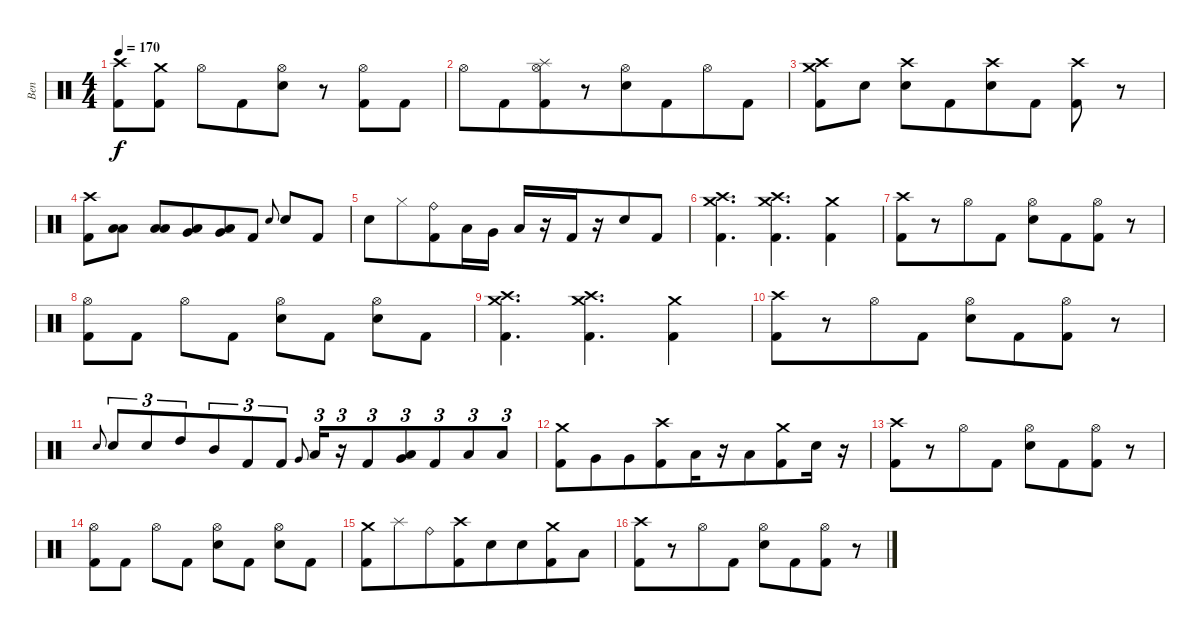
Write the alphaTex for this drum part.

\track ("Ben" "Ben") {instrument percussion}
\staff {score}
\articulation defaults
\ts (4 4)
\tempo 170
\clef neutral
\ks c
("Kick (hit) 2" "Crash high (hit)").8{dy f beam merge} ("Kick (hit) 2" "Crash medium (hit)").8 "Hi-Hat (open)".8 "Kick (hit) 2".8{beam merge} ("Electric Snare (hit)" "Hi-Hat (open)").8 r.8 ("Kick (hit) 2" "Hi-Hat (open)").8{beam merge} "Kick (hit) 2".8 |
"Hi-Hat (open)".8{beam merge} "Kick (hit) 2".8{beam merge} ("Kick (hit) 2" "Splash (hit)" "Hi-Hat (open)").8{beam merge} r.8{beam merge} ("Electric Snare (hit)" "Hi-Hat (open)").8{beam merge} "Kick (hit) 2".8{beam merge} "Hi-Hat (open)".8 "Kick (hit) 2".8 |
("Kick (hit) 2" "Crash high (hit)" "Crash medium (hit)").8{beam merge} "Electric Snare (hit)".8 ("Electric Snare (hit)" "Crash high (hit)").8 "Kick (hit) 2".8{beam merge} ("Electric Snare (hit)" "Crash high (hit)").8 "Kick (hit) 2".8 ("Kick (hit) 2" "Crash high (hit)").8{beam merge} r.8 |
("Kick (hit) 2" "Crash high (hit)").8{beam merge} ("Low Tom (hit)" "Low Floor Tom (hit)").8 ("Low Tom (hit)" "Low Floor Tom (hit)").8{beam merge} ("Very Low Tom (hit)" "Low Floor Tom (hit)").8{beam merge} ("Very Low Tom (hit)" "Low Floor Tom (hit)").8 "Kick (hit) 2".8 "Electric Snare (hit)".8{gr onbeat} "Electric Snare (hit)".8{beam merge} "Kick (hit) 2".8 |
"Electric Snare (hit)".8{beam merge} "Hi-Hat (closed)".8{beam merge} ("Ride (bell)" "Kick (hit) 2").8 "Low Tom (hit)".16 "Very Low Tom (hit)".16 "Low Floor Tom (hit)".16 r.16{beam merge} "Kick (hit) 2".16{beam merge} r.16{beam merge} "Electric Snare (hit)".8{beam merge} "Kick (hit) 2".8 |
("Crash high (hit)" "Crash medium (hit)" "Kick (hit) 2").4{d} ("Crash high (hit)" "Crash medium (hit)" "Kick (hit) 2").4{d beam merge} ("Crash medium (hit)" "Kick (hit) 2").4 |
("Crash high (hit)" "Kick (hit) 2").8{beam merge} r.8 "Hi-Hat (open)".8 "Kick (hit) 2".8 ("Hi-Hat (open)" "Electric Snare (hit)").8{beam merge} "Kick (hit) 2".8{beam merge} ("Hi-Hat (open)" "Kick (hit) 2").8{beam merge} r.8 |
("Hi-Hat (open)" "Kick (hit) 2").8 "Kick (hit) 2".8 "Hi-Hat (open)".8{beam merge} "Kick (hit) 2".8 ("Hi-Hat (open)" "Electric Snare (hit)").8 "Kick (hit) 2".8 ("Hi-Hat (open)" "Electric Snare (hit)").8 "Kick (hit) 2".8 |
("Crash high (hit)" "Crash medium (hit)" "Kick (hit) 2").4{d} ("Crash high (hit)" "Crash medium (hit)" "Kick (hit) 2").4{d beam merge} ("Crash medium (hit)" "Kick (hit) 2").4 |
("Crash high (hit)" "Kick (hit) 2").8{beam merge} r.8 "Hi-Hat (open)".8 "Kick (hit) 2".8 ("Hi-Hat (open)" "Electric Snare (hit)").8{beam merge} "Kick (hit) 2".8{beam merge} ("Hi-Hat (open)" "Kick (hit) 2").8{beam merge} r.8 |
"Electric Snare (hit)".8{gr onbeat beam merge} "Electric Snare (hit)".8{tu (3 2) beam merge} "Electric Snare (hit)".8{tu (3 2) beam merge} "High Tom (hit)".8{tu (3 2) beam merge} "Mid Tom (hit)".8{tu (3 2)} "Kick (hit) 2".8{tu (3 2)} "Kick (hit) 2".8{tu (3 2)} "Very Low Tom (hit)".8{gr onbeat beam merge} "Low Tom (hit)".16{tu (3 2)} r.16{tu (3 2) beam merge} "Kick (hit) 2".8{tu (3 2)} ("Low Floor Tom (hit)" "Very Low Tom (hit)").8{tu (3 2) beam merge} "Kick (hit) 2".8{tu (3 2) beam merge} "Low Floor Tom (hit)".8{tu (3 2) beam merge} "Low Floor Tom (hit)".8{tu (3 2)} |
("Crash medium (hit)" "Kick (hit) 2").8 "Very Low Tom (hit)".8{beam merge} "Very Low Tom (hit)".8{beam merge} ("Crash high (hit)" "Kick (hit) 2").8{beam merge} "Low Floor Tom (hit)".16{beam merge} r.16 "Low Floor Tom (hit)".8{beam merge} ("Kick (hit) 2" "Crash medium (hit)").8 "Electric Snare (hit)".16 r.16 |
("Crash high (hit)" "Kick (hit) 2").8{beam merge} r.8 "Hi-Hat (open)".8 "Kick (hit) 2".8 ("Hi-Hat (open)" "Electric Snare (hit)").8{beam merge} "Kick (hit) 2".8{beam merge} ("Hi-Hat (open)" "Kick (hit) 2").8{beam merge} r.8 |
("Hi-Hat (open)" "Kick (hit) 2").8 "Kick (hit) 2".8 "Hi-Hat (open)".8{beam merge} "Kick (hit) 2".8 ("Hi-Hat (open)" "Electric Snare (hit)").8 "Kick (hit) 2".8 ("Hi-Hat (open)" "Electric Snare (hit)").8 "Kick (hit) 2".8 |
("Crash medium (hit)" "Kick (hit) 2").8 "Splash (hit)".8{beam merge} "Ride (bell)".8{beam merge} ("Crash high (hit)" "Kick (hit) 2").8{beam merge} "Electric Snare (hit)".8 "Electric Snare (hit)".8{beam merge} ("Kick (hit) 2" "Crash medium (hit)").8 "Low Floor Tom (hit)".8 |
("Crash high (hit)" "Kick (hit) 2").8{beam merge} r.8 "Hi-Hat (open)".8 "Kick (hit) 2".8 ("Hi-Hat (open)" "Electric Snare (hit)").8{beam merge} "Kick (hit) 2".8{beam merge} ("Hi-Hat (open)" "Kick (hit) 2").8{beam merge} r.8
